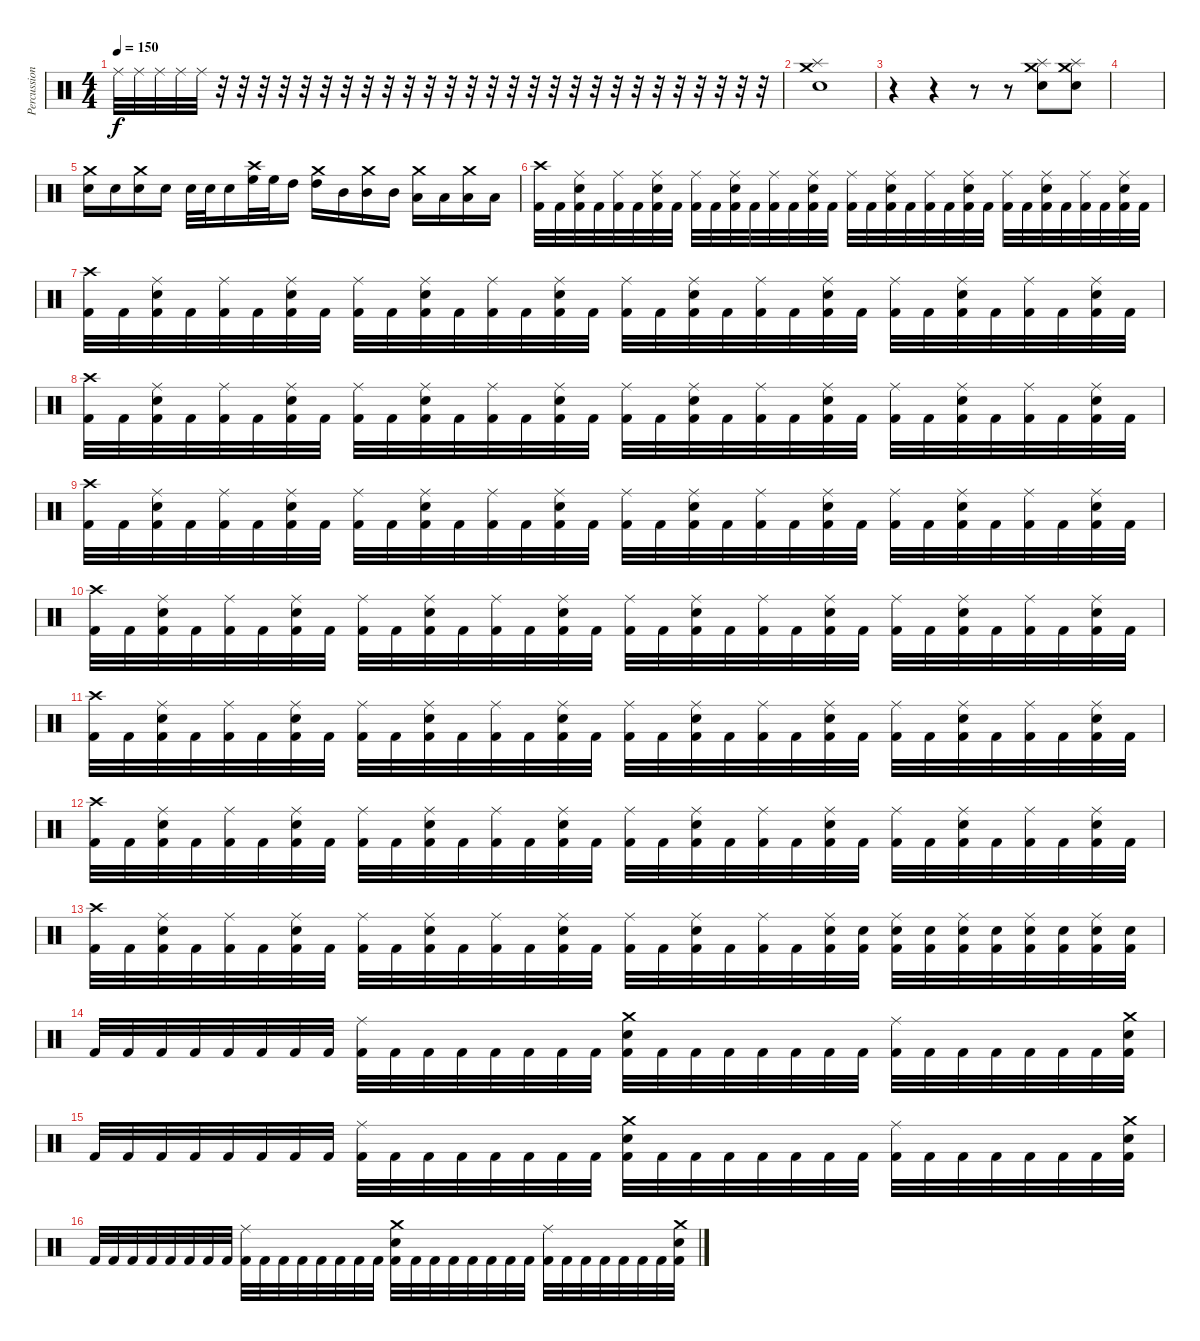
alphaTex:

\track ("Percussions" "Percussion") {instrument percussion}
\staff {score}
\articulation defaults
\ts (4 4)
\tempo 150
\clef neutral
\ks c "Ride (middle)".32{dy f} "Ride (middle)".32 "Ride (middle)".32 "Ride (middle)".32 "Ride (middle)".32
r.32 r.32 r.32 r.32 r.32 r.32 r.32 r.32 r.32 r.32 r.32 r.32 r.32 r.32 r.32 r.32 r.32 r.32 r.32 r.32 r.32 r.32 r.32 r.32 r.32 r.32 r.32 |
("Crash medium (hit)" "Splash (hit)" "Electric Snare (hit)").1 |
r.4 r.4 r.8 r.8 ("Splash (hit)" "Crash medium (hit)" "Electric Snare (hit)").8 ("Splash (hit)" "Crash medium (hit)" "Electric Snare (hit)").8 |
|
("Electric Snare (hit)" "Crash medium (hit)").16 "Electric Snare (hit)".16 ("Electric Snare (hit)" "Crash medium (hit)").16 "Electric Snare (hit)".16 "Electric Snare (hit)".32 "Electric Snare (hit)".32 "Electric Snare (hit)".16 ("High Floor Tom (hit)" "Crash high (hit)").32 "High Floor Tom (hit)".32 "High Tom (hit)".16 ("High Tom (hit)" "Crash medium (hit)").16 "Mid Tom (hit)".16 ("Mid Tom (hit)" "Crash medium (hit)").16 "Mid Tom (hit)".16 ("Low Tom (hit)" "Crash medium (hit)").16 "Low Tom (hit)".16 ("Low Tom (hit)" "Crash medium (hit)").16 "Low Tom (hit)".16 |
("Crash high (hit)" "Kick (hit) 2").32 "Kick (hit) 2".32 ("Ride (middle)" "Electric Snare (hit)" "Kick (hit) 2").32 "Kick (hit) 2".32 ("Ride (middle)" "Kick (hit) 2").32 "Kick (hit) 2".32 ("Ride (middle)" "Electric Snare (hit)" "Kick (hit) 2").32 "Kick (hit) 2".32 ("Ride (middle)" "Kick (hit) 2").32 "Kick (hit) 2".32 ("Ride (middle)" "Electric Snare (hit)" "Kick (hit) 2").32 "Kick (hit) 2".32 ("Ride (middle)" "Kick (hit) 2").32 "Kick (hit) 2".32 ("Ride (middle)" "Electric Snare (hit)" "Kick (hit) 2").32 "Kick (hit) 2".32 ("Ride (middle)" "Kick (hit) 2").32 "Kick (hit) 2".32 ("Ride (middle)" "Electric Snare (hit)" "Kick (hit) 2").32 "Kick (hit) 2".32 ("Ride (middle)" "Kick (hit) 2").32 "Kick (hit) 2".32 ("Ride (middle)" "Electric Snare (hit)" "Kick (hit) 2").32 "Kick (hit) 2".32 ("Ride (middle)" "Kick (hit) 2").32 "Kick (hit) 2".32 ("Ride (middle)" "Electric Snare (hit)" "Kick (hit) 2").32 "Kick (hit) 2".32 ("Ride (middle)" "Kick (hit) 2").32 "Kick (hit) 2".32 ("Ride (middle)" "Electric Snare (hit)" "Kick (hit) 2").32 "Kick (hit) 2".32 |
("Crash high (hit)" "Kick (hit) 2").32 "Kick (hit) 2".32 ("Ride (middle)" "Electric Snare (hit)" "Kick (hit) 2").32 "Kick (hit) 2".32 ("Ride (middle)" "Kick (hit) 2").32 "Kick (hit) 2".32 ("Ride (middle)" "Electric Snare (hit)" "Kick (hit) 2").32 "Kick (hit) 2".32 ("Ride (middle)" "Kick (hit) 2").32 "Kick (hit) 2".32 ("Ride (middle)" "Electric Snare (hit)" "Kick (hit) 2").32 "Kick (hit) 2".32 ("Ride (middle)" "Kick (hit) 2").32 "Kick (hit) 2".32 ("Ride (middle)" "Electric Snare (hit)" "Kick (hit) 2").32 "Kick (hit) 2".32 ("Ride (middle)" "Kick (hit) 2").32 "Kick (hit) 2".32 ("Ride (middle)" "Electric Snare (hit)" "Kick (hit) 2").32 "Kick (hit) 2".32 ("Ride (middle)" "Kick (hit) 2").32 "Kick (hit) 2".32 ("Ride (middle)" "Electric Snare (hit)" "Kick (hit) 2").32 "Kick (hit) 2".32 ("Ride (middle)" "Kick (hit) 2").32 "Kick (hit) 2".32 ("Ride (middle)" "Electric Snare (hit)" "Kick (hit) 2").32 "Kick (hit) 2".32 ("Ride (middle)" "Kick (hit) 2").32 "Kick (hit) 2".32 ("Ride (middle)" "Electric Snare (hit)" "Kick (hit) 2").32 "Kick (hit) 2".32 |
("Crash high (hit)" "Kick (hit) 2").32 "Kick (hit) 2".32 ("Ride (middle)" "Electric Snare (hit)" "Kick (hit) 2").32 "Kick (hit) 2".32 ("Ride (middle)" "Kick (hit) 2").32 "Kick (hit) 2".32 ("Ride (middle)" "Electric Snare (hit)" "Kick (hit) 2").32 "Kick (hit) 2".32 ("Ride (middle)" "Kick (hit) 2").32 "Kick (hit) 2".32 ("Ride (middle)" "Electric Snare (hit)" "Kick (hit) 2").32 "Kick (hit) 2".32 ("Ride (middle)" "Kick (hit) 2").32 "Kick (hit) 2".32 ("Ride (middle)" "Electric Snare (hit)" "Kick (hit) 2").32 "Kick (hit) 2".32 ("Ride (middle)" "Kick (hit) 2").32 "Kick (hit) 2".32 ("Ride (middle)" "Electric Snare (hit)" "Kick (hit) 2").32 "Kick (hit) 2".32 ("Ride (middle)" "Kick (hit) 2").32 "Kick (hit) 2".32 ("Ride (middle)" "Electric Snare (hit)" "Kick (hit) 2").32 "Kick (hit) 2".32 ("Ride (middle)" "Kick (hit) 2").32 "Kick (hit) 2".32 ("Ride (middle)" "Electric Snare (hit)" "Kick (hit) 2").32 "Kick (hit) 2".32 ("Ride (middle)" "Kick (hit) 2").32 "Kick (hit) 2".32 ("Ride (middle)" "Electric Snare (hit)" "Kick (hit) 2").32 "Kick (hit) 2".32 |
("Crash high (hit)" "Kick (hit) 2").32 "Kick (hit) 2".32 ("Ride (middle)" "Electric Snare (hit)" "Kick (hit) 2").32 "Kick (hit) 2".32 ("Ride (middle)" "Kick (hit) 2").32 "Kick (hit) 2".32 ("Ride (middle)" "Electric Snare (hit)" "Kick (hit) 2").32 "Kick (hit) 2".32 ("Ride (middle)" "Kick (hit) 2").32 "Kick (hit) 2".32 ("Ride (middle)" "Electric Snare (hit)" "Kick (hit) 2").32 "Kick (hit) 2".32 ("Ride (middle)" "Kick (hit) 2").32 "Kick (hit) 2".32 ("Ride (middle)" "Electric Snare (hit)" "Kick (hit) 2").32 "Kick (hit) 2".32 ("Ride (middle)" "Kick (hit) 2").32 "Kick (hit) 2".32 ("Ride (middle)" "Electric Snare (hit)" "Kick (hit) 2").32 "Kick (hit) 2".32 ("Ride (middle)" "Kick (hit) 2").32 "Kick (hit) 2".32 ("Ride (middle)" "Electric Snare (hit)" "Kick (hit) 2").32 "Kick (hit) 2".32 ("Ride (middle)" "Kick (hit) 2").32 "Kick (hit) 2".32 ("Ride (middle)" "Electric Snare (hit)" "Kick (hit) 2").32 "Kick (hit) 2".32 ("Ride (middle)" "Kick (hit) 2").32 "Kick (hit) 2".32 ("Ride (middle)" "Electric Snare (hit)" "Kick (hit) 2").32 "Kick (hit) 2".32 |
("Crash high (hit)" "Kick (hit) 2").32 "Kick (hit) 2".32 ("Ride (middle)" "Electric Snare (hit)" "Kick (hit) 2").32 "Kick (hit) 2".32 ("Ride (middle)" "Kick (hit) 2").32 "Kick (hit) 2".32 ("Ride (middle)" "Electric Snare (hit)" "Kick (hit) 2").32 "Kick (hit) 2".32 ("Ride (middle)" "Kick (hit) 2").32 "Kick (hit) 2".32 ("Ride (middle)" "Electric Snare (hit)" "Kick (hit) 2").32 "Kick (hit) 2".32 ("Ride (middle)" "Kick (hit) 2").32 "Kick (hit) 2".32 ("Ride (middle)" "Electric Snare (hit)" "Kick (hit) 2").32 "Kick (hit) 2".32 ("Ride (middle)" "Kick (hit) 2").32 "Kick (hit) 2".32 ("Ride (middle)" "Electric Snare (hit)" "Kick (hit) 2").32 "Kick (hit) 2".32 ("Ride (middle)" "Kick (hit) 2").32 "Kick (hit) 2".32 ("Ride (middle)" "Electric Snare (hit)" "Kick (hit) 2").32 "Kick (hit) 2".32 ("Ride (middle)" "Kick (hit) 2").32 "Kick (hit) 2".32 ("Ride (middle)" "Electric Snare (hit)" "Kick (hit) 2").32 "Kick (hit) 2".32 ("Ride (middle)" "Kick (hit) 2").32 "Kick (hit) 2".32 ("Ride (middle)" "Electric Snare (hit)" "Kick (hit) 2").32 "Kick (hit) 2".32 |
("Crash high (hit)" "Kick (hit) 2").32 "Kick (hit) 2".32 ("Ride (middle)" "Electric Snare (hit)" "Kick (hit) 2").32 "Kick (hit) 2".32 ("Ride (middle)" "Kick (hit) 2").32 "Kick (hit) 2".32 ("Ride (middle)" "Electric Snare (hit)" "Kick (hit) 2").32 "Kick (hit) 2".32 ("Ride (middle)" "Kick (hit) 2").32 "Kick (hit) 2".32 ("Ride (middle)" "Electric Snare (hit)" "Kick (hit) 2").32 "Kick (hit) 2".32 ("Ride (middle)" "Kick (hit) 2").32 "Kick (hit) 2".32 ("Ride (middle)" "Electric Snare (hit)" "Kick (hit) 2").32 "Kick (hit) 2".32 ("Ride (middle)" "Kick (hit) 2").32 "Kick (hit) 2".32 ("Ride (middle)" "Electric Snare (hit)" "Kick (hit) 2").32 "Kick (hit) 2".32 ("Ride (middle)" "Kick (hit) 2").32 "Kick (hit) 2".32 ("Ride (middle)" "Electric Snare (hit)" "Kick (hit) 2").32 "Kick (hit) 2".32 ("Ride (middle)" "Kick (hit) 2").32 "Kick (hit) 2".32 ("Ride (middle)" "Electric Snare (hit)" "Kick (hit) 2").32 "Kick (hit) 2".32 ("Ride (middle)" "Kick (hit) 2").32 "Kick (hit) 2".32 ("Ride (middle)" "Electric Snare (hit)" "Kick (hit) 2").32 "Kick (hit) 2".32 |
("Crash high (hit)" "Kick (hit) 2").32 "Kick (hit) 2".32 ("Ride (middle)" "Electric Snare (hit)" "Kick (hit) 2").32 "Kick (hit) 2".32 ("Ride (middle)" "Kick (hit) 2").32 "Kick (hit) 2".32 ("Ride (middle)" "Electric Snare (hit)" "Kick (hit) 2").32 "Kick (hit) 2".32 ("Ride (middle)" "Kick (hit) 2").32 "Kick (hit) 2".32 ("Ride (middle)" "Electric Snare (hit)" "Kick (hit) 2").32 "Kick (hit) 2".32 ("Ride (middle)" "Kick (hit) 2").32 "Kick (hit) 2".32 ("Ride (middle)" "Electric Snare (hit)" "Kick (hit) 2").32 "Kick (hit) 2".32 ("Ride (middle)" "Kick (hit) 2").32 "Kick (hit) 2".32 ("Ride (middle)" "Electric Snare (hit)" "Kick (hit) 2").32 "Kick (hit) 2".32 ("Ride (middle)" "Kick (hit) 2").32 "Kick (hit) 2".32 ("Ride (middle)" "Electric Snare (hit)" "Kick (hit) 2").32 "Kick (hit) 2".32 ("Ride (middle)" "Kick (hit) 2").32 "Kick (hit) 2".32 ("Ride (middle)" "Electric Snare (hit)" "Kick (hit) 2").32 "Kick (hit) 2".32 ("Ride (middle)" "Kick (hit) 2").32 "Kick (hit) 2".32 ("Ride (middle)" "Electric Snare (hit)" "Kick (hit) 2").32 "Kick (hit) 2".32 |
("Crash high (hit)" "Kick (hit) 2").32 "Kick (hit) 2".32 ("Ride (middle)" "Electric Snare (hit)" "Kick (hit) 2").32 "Kick (hit) 2".32 ("Ride (middle)" "Kick (hit) 2").32 "Kick (hit) 2".32 ("Ride (middle)" "Electric Snare (hit)" "Kick (hit) 2").32 "Kick (hit) 2".32 ("Ride (middle)" "Kick (hit) 2").32 "Kick (hit) 2".32 ("Ride (middle)" "Electric Snare (hit)" "Kick (hit) 2").32 "Kick (hit) 2".32 ("Ride (middle)" "Kick (hit) 2").32 "Kick (hit) 2".32 ("Ride (middle)" "Electric Snare (hit)" "Kick (hit) 2").32 "Kick (hit) 2".32 ("Ride (middle)" "Kick (hit) 2").32 "Kick (hit) 2".32 ("Ride (middle)" "Electric Snare (hit)" "Kick (hit) 2").32 "Kick (hit) 2".32 ("Ride (middle)" "Kick (hit) 2").32 "Kick (hit) 2".32 ("Ride (middle)" "Electric Snare (hit)" "Kick (hit) 2").32 ("Electric Snare (hit)" "Kick (hit) 2").32 ("Ride (middle)" "Electric Snare (hit)" "Kick (hit) 2").32 ("Electric Snare (hit)" "Kick (hit) 2").32 ("Ride (middle)" "Electric Snare (hit)" "Kick (hit) 2").32 ("Electric Snare (hit)" "Kick (hit) 2").32 ("Ride (middle)" "Electric Snare (hit)" "Kick (hit) 2").32 ("Electric Snare (hit)" "Kick (hit) 2").32 ("Ride (middle)" "Electric Snare (hit)" "Kick (hit) 2").32 ("Electric Snare (hit)" "Kick (hit) 2").32 |
"Kick (hit) 2".32 "Kick (hit) 2".32 "Kick (hit) 2".32 "Kick (hit) 2".32 "Kick (hit) 2".32 "Kick (hit) 2".32 "Kick (hit) 2".32 "Kick (hit) 2".32 ("Ride (middle)" "Kick (hit) 2").32 "Kick (hit) 2".32 "Kick (hit) 2".32 "Kick (hit) 2".32 "Kick (hit) 2".32 "Kick (hit) 2".32 "Kick (hit) 2".32 "Kick (hit) 2".32 ("Crash medium (hit)" "Electric Snare (hit)" "Kick (hit) 2").32 "Kick (hit) 2".32 "Kick (hit) 2".32 "Kick (hit) 2".32 "Kick (hit) 2".32 "Kick (hit) 2".32 "Kick (hit) 2".32 "Kick (hit) 2".32 ("Ride (middle)" "Kick (hit) 2").32 "Kick (hit) 2".32 "Kick (hit) 2".32 "Kick (hit) 2".32 "Kick (hit) 2".32 "Kick (hit) 2".32 "Kick (hit) 2".32 ("Crash medium (hit)" "Electric Snare (hit)" "Kick (hit) 2").32 |
"Kick (hit) 2".32 "Kick (hit) 2".32 "Kick (hit) 2".32 "Kick (hit) 2".32 "Kick (hit) 2".32 "Kick (hit) 2".32 "Kick (hit) 2".32 "Kick (hit) 2".32 ("Ride (middle)" "Kick (hit) 2").32 "Kick (hit) 2".32 "Kick (hit) 2".32 "Kick (hit) 2".32 "Kick (hit) 2".32 "Kick (hit) 2".32 "Kick (hit) 2".32 "Kick (hit) 2".32 ("Crash medium (hit)" "Electric Snare (hit)" "Kick (hit) 2").32 "Kick (hit) 2".32 "Kick (hit) 2".32 "Kick (hit) 2".32 "Kick (hit) 2".32 "Kick (hit) 2".32 "Kick (hit) 2".32 "Kick (hit) 2".32 ("Ride (middle)" "Kick (hit) 2").32 "Kick (hit) 2".32 "Kick (hit) 2".32 "Kick (hit) 2".32 "Kick (hit) 2".32 "Kick (hit) 2".32 "Kick (hit) 2".32 ("Crash medium (hit)" "Electric Snare (hit)" "Kick (hit) 2").32 |
"Kick (hit) 2".32 "Kick (hit) 2".32 "Kick (hit) 2".32 "Kick (hit) 2".32 "Kick (hit) 2".32 "Kick (hit) 2".32 "Kick (hit) 2".32 "Kick (hit) 2".32 ("Ride (middle)" "Kick (hit) 2").32 "Kick (hit) 2".32 "Kick (hit) 2".32 "Kick (hit) 2".32 "Kick (hit) 2".32 "Kick (hit) 2".32 "Kick (hit) 2".32 "Kick (hit) 2".32 ("Crash medium (hit)" "Electric Snare (hit)" "Kick (hit) 2").32 "Kick (hit) 2".32 "Kick (hit) 2".32 "Kick (hit) 2".32 "Kick (hit) 2".32 "Kick (hit) 2".32 "Kick (hit) 2".32 "Kick (hit) 2".32 ("Ride (middle)" "Kick (hit) 2").32 "Kick (hit) 2".32 "Kick (hit) 2".32 "Kick (hit) 2".32 "Kick (hit) 2".32 "Kick (hit) 2".32 "Kick (hit) 2".32 ("Crash medium (hit)" "Electric Snare (hit)" "Kick (hit) 2").32
